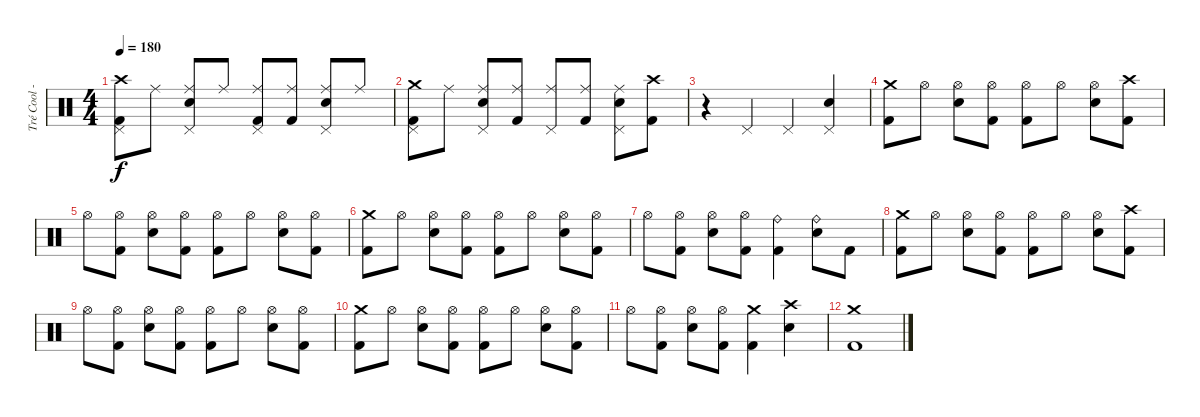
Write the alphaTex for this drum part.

\track ("Tré Cool - Drums" "Tré Cool -") {instrument percussion}
\staff {score}
\articulation defaults
\ts (4 4)
\tempo 180
\clef neutral
\ks c
("Crash high (hit)" "Pedal Hi-Hat (hit)" "Kick (hit) 2").8{dy f} "Ride (middle)".8 ("Ride (middle)" "Pedal Hi-Hat (hit)" "Electric Snare (hit)").8 "Ride (middle)".8 ("Ride (middle)" "Pedal Hi-Hat (hit)" "Kick (hit) 2").8 ("Ride (middle)" "Kick (hit) 2").8 ("Ride (middle)" "Pedal Hi-Hat (hit)" "Electric Snare (hit)").8 "Ride (middle)".8 |
("Crash medium (hit)" "Pedal Hi-Hat (hit)" "Kick (hit) 2").8 "Ride (middle)".8 ("Ride (middle)" "Pedal Hi-Hat (hit)" "Electric Snare (hit)").8 ("Ride (middle)" "Kick (hit) 2").8 ("Ride (middle)" "Pedal Hi-Hat (hit)").8 ("Ride (middle)" "Kick (hit) 2").8 ("Ride (middle)" "Pedal Hi-Hat (hit)" "Electric Snare (hit)").8 ("Crash high (hit)" "Kick (hit) 2").8 |
r.4 "Pedal Hi-Hat (hit)".4 "Pedal Hi-Hat (hit)".4 ("Pedal Hi-Hat (hit)" "Electric Snare (hit)").4 |
("Crash medium (hit)" "Kick (hit) 2").8 "Hi-Hat (open)".8 ("Hi-Hat (open)" "Electric Snare (hit)").8 ("Hi-Hat (open)" "Kick (hit) 2").8 ("Hi-Hat (open)" "Kick (hit) 2").8 "Hi-Hat (open)".8 ("Hi-Hat (open)" "Electric Snare (hit)").8 ("Crash high (hit)" "Kick (hit) 2").8 |
"Hi-Hat (open)".8 ("Hi-Hat (open)" "Kick (hit) 2").8 ("Hi-Hat (open)" "Electric Snare (hit)").8 ("Hi-Hat (open)" "Kick (hit) 2").8 ("Hi-Hat (open)" "Kick (hit) 2").8 "Hi-Hat (open)".8 ("Hi-Hat (open)" "Electric Snare (hit)").8 ("Hi-Hat (open)" "Kick (hit) 2").8 |
("Crash medium (hit)" "Kick (hit) 2").8 "Hi-Hat (open)".8 ("Hi-Hat (open)" "Electric Snare (hit)").8 ("Hi-Hat (open)" "Kick (hit) 2").8 ("Hi-Hat (open)" "Kick (hit) 2").8 "Hi-Hat (open)".8 ("Hi-Hat (open)" "Electric Snare (hit)").8 ("Hi-Hat (open)" "Kick (hit) 2").8 |
"Hi-Hat (open)".8 ("Hi-Hat (open)" "Kick (hit) 2").8 ("Hi-Hat (open)" "Electric Snare (hit)").8 ("Hi-Hat (open)" "Kick (hit) 2").8 ("Ride (bell)" "Kick (hit) 2").4 ("Ride (bell)" "Electric Snare (hit)").8 "Kick (hit) 2".8 |
("Crash medium (hit)" "Kick (hit) 2").8 "Hi-Hat (open)".8 ("Hi-Hat (open)" "Electric Snare (hit)").8 ("Hi-Hat (open)" "Kick (hit) 2").8 ("Hi-Hat (open)" "Kick (hit) 2").8 "Hi-Hat (open)".8 ("Hi-Hat (open)" "Electric Snare (hit)").8 ("Crash high (hit)" "Kick (hit) 2").8 |
"Hi-Hat (open)".8 ("Hi-Hat (open)" "Kick (hit) 2").8 ("Hi-Hat (open)" "Electric Snare (hit)").8 ("Hi-Hat (open)" "Kick (hit) 2").8 ("Hi-Hat (open)" "Kick (hit) 2").8 "Hi-Hat (open)".8 ("Hi-Hat (open)" "Electric Snare (hit)").8 ("Hi-Hat (open)" "Kick (hit) 2").8 |
("Crash medium (hit)" "Kick (hit) 2").8 "Hi-Hat (open)".8 ("Hi-Hat (open)" "Electric Snare (hit)").8 ("Hi-Hat (open)" "Kick (hit) 2").8 ("Hi-Hat (open)" "Kick (hit) 2").8 "Hi-Hat (open)".8 ("Hi-Hat (open)" "Electric Snare (hit)").8 ("Hi-Hat (open)" "Kick (hit) 2").8 |
"Hi-Hat (open)".8 ("Hi-Hat (open)" "Kick (hit) 2").8 ("Hi-Hat (open)" "Electric Snare (hit)").8 ("Hi-Hat (open)" "Kick (hit) 2").8 ("Crash medium (hit)" "Kick (hit) 2").4 ("Crash high (hit)" "Electric Snare (hit)").4 |
("Crash medium (hit)" "Kick (hit) 2").1
